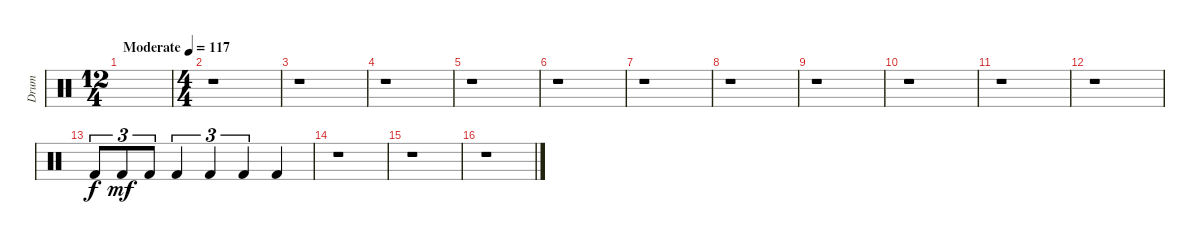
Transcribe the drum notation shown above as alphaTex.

\track ("Drum" "Drum") {instrument percussion}
\staff {score}
\articulation defaults
\ts (12 4)
\tempo (117 "Moderate")
\clef neutral
\ks c
|
\ts (4 4)
r.1 |
r.1 |
r.1 |
r.1 |
r.1 |
r.1 |
r.1 |
r.1 |
r.1 |
r.1 |
r.1 |
"Kick (hit) 2".8{tu (3 2) volume 9} "Kick (hit) 2".8{tu (3 2) dy mf} "Kick (hit) 2".8{tu (3 2)} "Kick (hit) 2".4{tu (3 2)} "Kick (hit) 2".4{tu (3 2)} "Kick (hit) 2".4{tu (3 2)} "Kick (hit) 2".4 |
r.1 |
r.1 |
r.1
